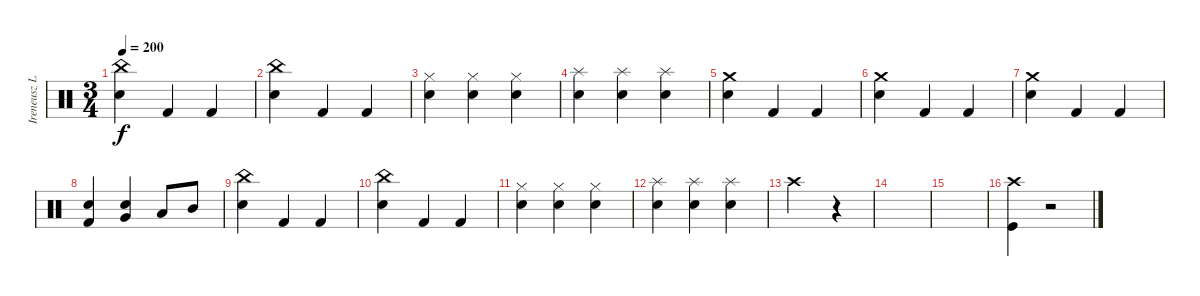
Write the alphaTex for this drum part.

\track ("Ireneusz Loth -Drums" "Ireneusz L") {instrument percussion}
\staff {score}
\articulation defaults
\ts (3 4)
\tempo 200
\clef neutral
\ks c
("China (hit)" "Snare (hit) 2").4{dy f} "Kick (hit) 2".4 "Kick (hit) 2".4 |
("China (hit)" "Snare (hit) 2").4 "Kick (hit) 2".4 "Kick (hit) 2".4 |
("Hi-Hat (closed)" "Snare (hit) 2").4 ("Hi-Hat (closed)" "Snare (hit) 2").4 ("Hi-Hat (closed)" "Snare (hit) 2").4 |
("Splash (hit)" "Snare (hit) 2").4 ("Splash (hit)" "Snare (hit) 2").4 ("Splash (hit)" "Snare (hit) 2").4 |
("Snare (hit) 2" "Crash medium (hit)").4 "Kick (hit) 2".4 "Kick (hit) 2".4 |
("Snare (hit) 2" "Crash medium (hit)").4 "Kick (hit) 2".4 "Kick (hit) 2".4 |
("Snare (hit) 2" "Crash medium (hit)").4 "Kick (hit) 2".4 "Kick (hit) 2".4 |
("Snare (hit) 2" "Kick (hit) 2").4 ("Very Low Tom (hit)" "Snare (hit) 2").4 "Low Tom (hit)".8 "Mid Tom (hit)".8 |
("China (hit)" "Snare (hit) 2").4 "Kick (hit) 2".4 "Kick (hit) 2".4 |
("China (hit)" "Snare (hit) 2").4 "Kick (hit) 2".4 "Kick (hit) 2".4 |
("Hi-Hat (closed)" "Snare (hit) 2").4 ("Hi-Hat (closed)" "Snare (hit) 2").4 ("Hi-Hat (closed)" "Snare (hit) 2").4 |
("Splash (hit)" "Snare (hit) 2").4 ("Splash (hit)" "Snare (hit) 2").4 ("Splash (hit)" "Snare (hit) 2").4 |
"Crash high (hit)".2 r.4 |
|
|
("Kick (hit)" "Crash high (hit)").4 r.2
